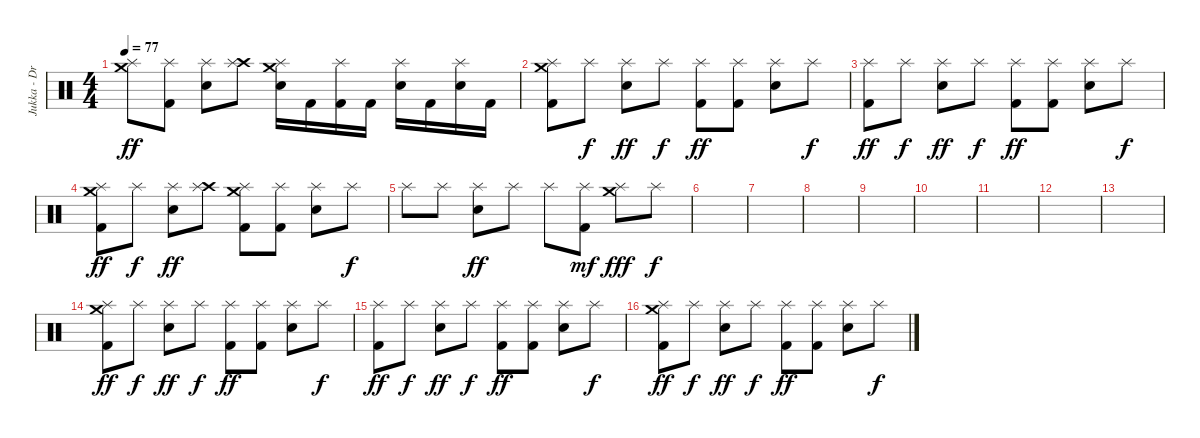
\track ("Jukka - Drums" "Jukka - Dr") {instrument percussion}
\staff {score}
\articulation defaults
\ts (4 4)
\tempo 77
\clef neutral
\ks c
("Crash medium (hit)" "Splash (hit)").8{dy ff} ("Splash (hit)" "Kick (hit) 2").8 ("Splash (hit)" "Electric Snare (hit)").8 ("Crash high (hit)" "Splash (hit)").8 ("Crash medium (hit)" "Splash (hit)" "Electric Snare (hit)").16 "Kick (hit) 2".16 ("Splash (hit)" "Kick (hit) 2").16 "Kick (hit) 2".16 ("Splash (hit)" "Electric Snare (hit)").16 "Kick (hit) 2".16 ("Splash (hit)" "Electric Snare (hit)").16 "Kick (hit) 2".16 |
("Crash medium (hit)" "Splash (hit)" "Kick (hit) 2").8 "Splash (hit)".8{dy f} ("Splash (hit)" "Electric Snare (hit)").8{dy ff} "Splash (hit)".8{dy f} ("Splash (hit)" "Kick (hit) 2").8{dy ff} ("Splash (hit)" "Kick (hit) 2").8 ("Splash (hit)" "Electric Snare (hit)").8 "Splash (hit)".8{dy f} |
("Splash (hit)" "Kick (hit) 2").8{dy ff} "Splash (hit)".8{dy f} ("Splash (hit)" "Electric Snare (hit)").8{dy ff} "Splash (hit)".8{dy f} ("Splash (hit)" "Kick (hit) 2").8{dy ff} ("Splash (hit)" "Kick (hit) 2").8 ("Splash (hit)" "Electric Snare (hit)").8 "Splash (hit)".8{dy f} |
("Crash medium (hit)" "Splash (hit)" "Kick (hit) 2").8{dy ff} "Splash (hit)".8{dy f} ("Splash (hit)" "Electric Snare (hit)").8{dy ff} ("Crash high (hit)" "Splash (hit)").8 ("Crash medium (hit)" "Splash (hit)" "Kick (hit) 2").8 ("Splash (hit)" "Kick (hit) 2").8 ("Splash (hit)" "Electric Snare (hit)").8 "Splash (hit)".8{dy f} |
"Splash (hit)".8 "Splash (hit)".8 ("Splash (hit)" "Electric Snare (hit)").8{dy ff} "Splash (hit)".8 "Splash (hit)".8 ("Splash (hit)" "Kick (hit) 2").8{dy mf} ("Crash medium (hit)" "Splash (hit)").8{dy fff} "Splash (hit)".8{dy f} |
|
|
|
|
|
|
|
|
("Crash medium (hit)" "Splash (hit)" "Kick (hit) 2").8{dy ff} "Splash (hit)".8{dy f} ("Splash (hit)" "Electric Snare (hit)").8{dy ff} "Splash (hit)".8{dy f} ("Splash (hit)" "Kick (hit) 2").8{dy ff} ("Splash (hit)" "Kick (hit) 2").8 ("Splash (hit)" "Electric Snare (hit)").8 "Splash (hit)".8{dy f} |
("Splash (hit)" "Kick (hit) 2").8{dy ff} "Splash (hit)".8{dy f} ("Splash (hit)" "Electric Snare (hit)").8{dy ff} "Splash (hit)".8{dy f} ("Splash (hit)" "Kick (hit) 2").8{dy ff} ("Splash (hit)" "Kick (hit) 2").8 ("Splash (hit)" "Electric Snare (hit)").8 "Splash (hit)".8{dy f} |
("Crash medium (hit)" "Splash (hit)" "Kick (hit) 2").8{dy ff} "Splash (hit)".8{dy f} ("Splash (hit)" "Electric Snare (hit)").8{dy ff} "Splash (hit)".8{dy f} ("Splash (hit)" "Kick (hit) 2").8{dy ff} ("Splash (hit)" "Kick (hit) 2").8 ("Splash (hit)" "Electric Snare (hit)").8 "Splash (hit)".8{dy f}
